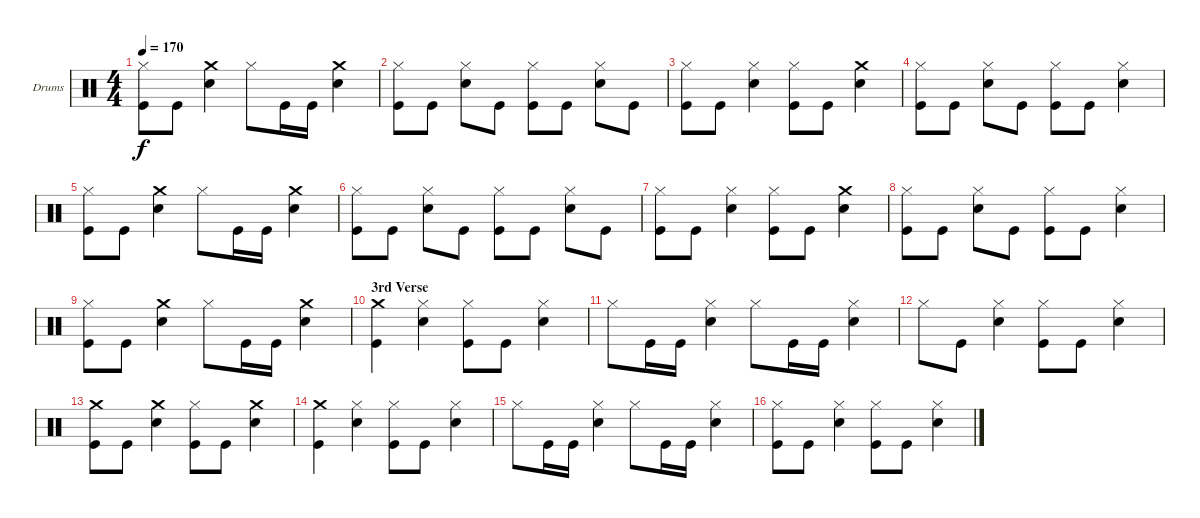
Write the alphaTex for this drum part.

\bracketExtendMode groupsimilarinstruments
\firstSystemTrackNameOrientation horizontal
\otherSystemsTrackNameOrientation horizontal
\track ("Drumkit" "Drums") {instrument percussion}
\staff {score}
\articulation defaults
\ts (4 4)
\tempo 170
\clef neutral
\ks c
("Hi-Hat (closed)" "Kick (hit)").8{dy f} "Kick (hit)".8 ("Crash medium (hit)" "Snare (hit) 2").4 "Hi-Hat (closed)".8 "Kick (hit)".16 "Kick (hit)".16 ("Crash medium (hit)" "Snare (hit) 2").4 |
("Hi-Hat (closed)" "Kick (hit)").8 "Kick (hit)".8 ("Hi-Hat (closed)" "Snare (hit) 2").8 "Kick (hit)".8 ("Hi-Hat (closed)" "Kick (hit)").8 "Kick (hit)".8 ("Hi-Hat (closed)" "Snare (hit) 2").8 "Kick (hit)".8 |
("Hi-Hat (closed)" "Kick (hit)").8 "Kick (hit)".8 ("Hi-Hat (closed)" "Snare (hit) 2").4 ("Hi-Hat (closed)" "Kick (hit)").8 "Kick (hit)".8 ("Crash medium (hit)" "Snare (hit) 2").4 |
("Hi-Hat (closed)" "Kick (hit)").8 "Kick (hit)".8 ("Hi-Hat (closed)" "Snare (hit) 2").8 "Kick (hit)".8 ("Hi-Hat (closed)" "Kick (hit)").8 "Kick (hit)".8 ("Hi-Hat (closed)" "Snare (hit) 2").4 |
("Hi-Hat (closed)" "Kick (hit)").8 "Kick (hit)".8 ("Crash medium (hit)" "Snare (hit) 2").4 "Hi-Hat (closed)".8 "Kick (hit)".16 "Kick (hit)".16 ("Crash medium (hit)" "Snare (hit) 2").4 |
("Hi-Hat (closed)" "Kick (hit)").8 "Kick (hit)".8 ("Hi-Hat (closed)" "Snare (hit) 2").8 "Kick (hit)".8 ("Hi-Hat (closed)" "Kick (hit)").8 "Kick (hit)".8 ("Hi-Hat (closed)" "Snare (hit) 2").8 "Kick (hit)".8 |
("Hi-Hat (closed)" "Kick (hit)").8 "Kick (hit)".8 ("Hi-Hat (closed)" "Snare (hit) 2").4 ("Hi-Hat (closed)" "Kick (hit)").8 "Kick (hit)".8 ("Crash medium (hit)" "Snare (hit) 2").4 |
("Hi-Hat (closed)" "Kick (hit)").8 "Kick (hit)".8 ("Hi-Hat (closed)" "Snare (hit) 2").8 "Kick (hit)".8 ("Hi-Hat (closed)" "Kick (hit)").8 "Kick (hit)".8 ("Hi-Hat (closed)" "Snare (hit) 2").4 |
("Hi-Hat (closed)" "Kick (hit)").8 "Kick (hit)".8 ("Crash medium (hit)" "Snare (hit) 2").4 "Hi-Hat (closed)".8 "Kick (hit)".16 "Kick (hit)".16 ("Crash medium (hit)" "Snare (hit) 2").4 |
\section ("" "3rd Verse")
("Crash medium (hit)" "Kick (hit)").4 ("Hi-Hat (closed)" "Snare (hit) 2").4 ("Hi-Hat (closed)" "Kick (hit)").8 "Kick (hit)".8 ("Hi-Hat (closed)" "Snare (hit) 2").4 |
"Hi-Hat (closed)".8 "Kick (hit)".16 "Kick (hit)".16 ("Hi-Hat (closed)" "Snare (hit) 2").4 "Hi-Hat (closed)".8 "Kick (hit)".16 "Kick (hit)".16 ("Hi-Hat (closed)" "Snare (hit) 2").4 |
"Hi-Hat (closed)".8 "Kick (hit)".8 ("Hi-Hat (closed)" "Snare (hit) 2").4 ("Hi-Hat (closed)" "Kick (hit)").8 "Kick (hit)".8 ("Hi-Hat (closed)" "Snare (hit) 2").4 |
("Crash medium (hit)" "Kick (hit)").8 "Kick (hit)".8 ("Crash medium (hit)" "Snare (hit) 2").4 ("Hi-Hat (closed)" "Kick (hit)").8 "Kick (hit)".8 ("Crash medium (hit)" "Snare (hit) 2").4 |
("Crash medium (hit)" "Kick (hit)").4 ("Hi-Hat (closed)" "Snare (hit) 2").4 ("Hi-Hat (closed)" "Kick (hit)").8 "Kick (hit)".8 ("Hi-Hat (closed)" "Snare (hit) 2").4 |
"Hi-Hat (closed)".8 "Kick (hit)".16 "Kick (hit)".16 ("Hi-Hat (closed)" "Snare (hit) 2").4 "Hi-Hat (closed)".8 "Kick (hit)".16 "Kick (hit)".16 ("Hi-Hat (closed)" "Snare (hit) 2").4 |
("Hi-Hat (closed)" "Kick (hit)").8 "Kick (hit)".8 ("Hi-Hat (closed)" "Snare (hit) 2").4 ("Hi-Hat (closed)" "Kick (hit)").8 "Kick (hit)".8 ("Hi-Hat (closed)" "Snare (hit) 2").4
